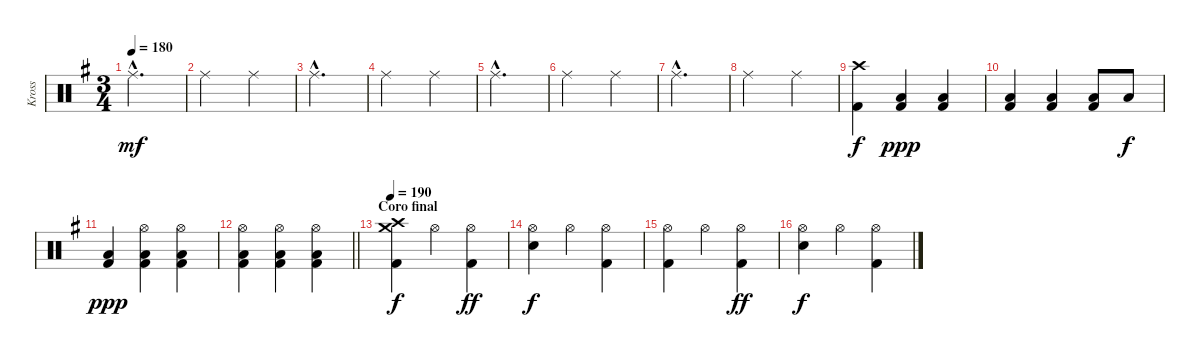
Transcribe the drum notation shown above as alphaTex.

\track ("Kross" "Kross") {instrument percussion}
\staff {score}
\articulation defaults
\ts (3 4)
\tempo 180
\clef neutral
\ks g "Ride (middle)"{hac}.2{d dy mf}
|
"Ride (middle)".2 "Ride (middle)".4 |
"Ride (middle)"{hac}.2{d} |
"Ride (middle)".2 "Ride (middle)".4 |
"Ride (middle)"{hac}.2{d} |
"Ride (middle)".2 "Ride (middle)".4 |
"Ride (middle)"{hac}.2{d} |
"Ride (middle)".2 "Ride (middle)".4 |
("Crash high (hit)" "Kick (hit) 2").4{dy f} ("Low Floor Tom (hit)" "Kick (hit) 2").4{dy ppp} ("Low Floor Tom (hit)" "Kick (hit) 2").4 |
("Low Floor Tom (hit)" "Kick (hit) 2").4 ("Low Floor Tom (hit)" "Kick (hit) 2").4 ("Low Floor Tom (hit)" "Kick (hit) 2").8 "Low Floor Tom (hit)".8{dy f} |
("Low Floor Tom (hit)" "Kick (hit) 2").4{dy ppp} ("Hi-Hat (open)" "Low Floor Tom (hit)" "Kick (hit) 2").4 ("Hi-Hat (open)" "Low Floor Tom (hit)" "Kick (hit) 2").4 |
\barLineRight lightlight
("Hi-Hat (open)" "Low Floor Tom (hit)" "Kick (hit) 2").4 ("Hi-Hat (open)" "Low Floor Tom (hit)" "Kick (hit) 2").4 ("Hi-Hat (open)" "Low Floor Tom (hit)" "Kick (hit) 2").4 |
\section ("" "Coro final")
\tempo 190
("Crash high (hit)" "Crash medium (hit)" "Kick (hit) 2").4{dy f} "Hi-Hat (open)".4 ("Hi-Hat (open)" "Kick (hit) 2").4{dy ff} |
("Hi-Hat (open)" "Snare (hit) 2").4{dy f} "Hi-Hat (open)".4 ("Hi-Hat (open)" "Kick (hit) 2").4 |
("Hi-Hat (open)" "Kick (hit) 2").4 "Hi-Hat (open)".4 ("Hi-Hat (open)" "Kick (hit) 2").4{dy ff} |
("Hi-Hat (open)" "Snare (hit) 2").4{dy f} "Hi-Hat (open)".4 ("Hi-Hat (open)" "Kick (hit) 2").4
